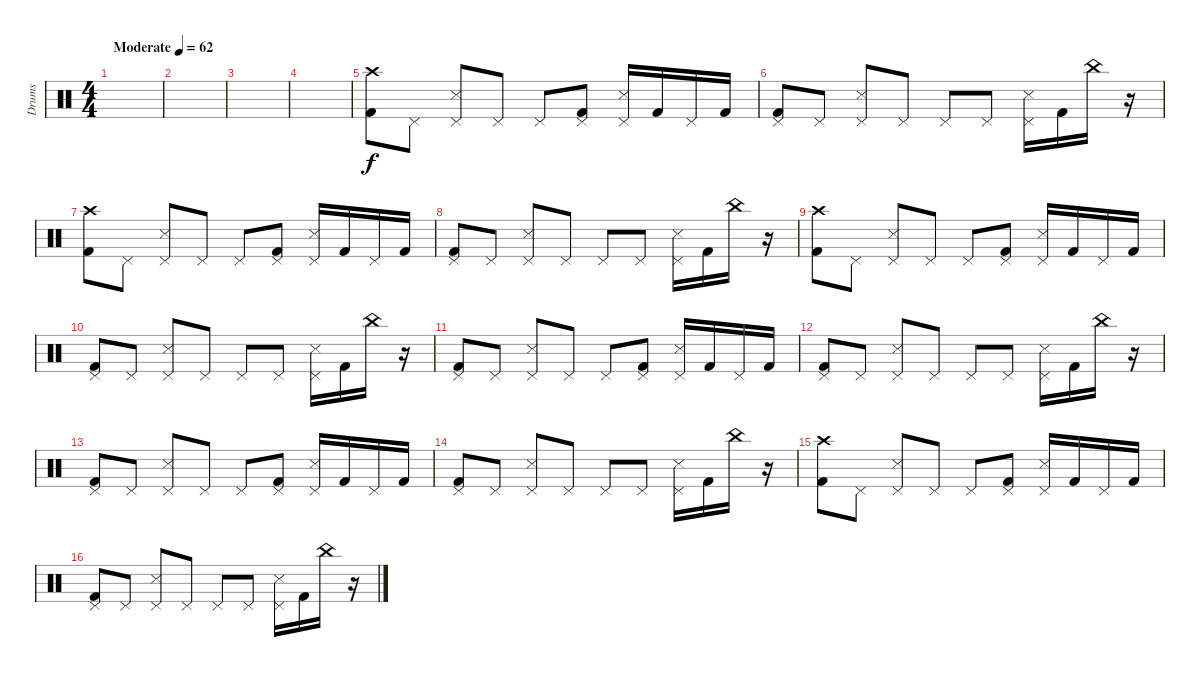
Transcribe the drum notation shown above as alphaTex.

\track ("Drums" "Drums") {instrument percussion}
\staff {score}
\articulation defaults
\ts (4 4)
\tempo (62 "Moderate")
\clef neutral
\ks c
|
|
|
|
("Crash high (hit)" "Kick (hit) 2").8 "Pedal Hi-Hat (hit)".8 ("Pedal Hi-Hat (hit)" "Snare (side stick) 3").8 "Pedal Hi-Hat (hit)".8 "Pedal Hi-Hat (hit)".8 ("Pedal Hi-Hat (hit)" "Kick (hit) 2").8 ("Pedal Hi-Hat (hit)" "Snare (side stick) 3").16 "Kick (hit) 2".16 "Pedal Hi-Hat (hit)".16 "Kick (hit) 2".16 |
("Pedal Hi-Hat (hit)" "Kick (hit) 2").8 "Pedal Hi-Hat (hit)".8 ("Pedal Hi-Hat (hit)" "Snare (side stick) 3").8 "Pedal Hi-Hat (hit)".8 "Pedal Hi-Hat (hit)".8 "Pedal Hi-Hat (hit)".8 ("Pedal Hi-Hat (hit)" "Snare (side stick) 3").16 "Kick (hit) 2".16 "China (hit)".16 r.16 |
("Crash high (hit)" "Kick (hit) 2").8 "Pedal Hi-Hat (hit)".8 ("Pedal Hi-Hat (hit)" "Snare (side stick) 3").8 "Pedal Hi-Hat (hit)".8 "Pedal Hi-Hat (hit)".8 ("Pedal Hi-Hat (hit)" "Kick (hit) 2").8 ("Pedal Hi-Hat (hit)" "Snare (side stick) 3").16 "Kick (hit) 2".16 "Pedal Hi-Hat (hit)".16 "Kick (hit) 2".16 |
("Pedal Hi-Hat (hit)" "Kick (hit) 2").8 "Pedal Hi-Hat (hit)".8 ("Pedal Hi-Hat (hit)" "Snare (side stick) 3").8 "Pedal Hi-Hat (hit)".8 "Pedal Hi-Hat (hit)".8 "Pedal Hi-Hat (hit)".8 ("Pedal Hi-Hat (hit)" "Snare (side stick) 3").16 "Kick (hit) 2".16 "China (hit)".16 r.16 |
("Crash high (hit)" "Kick (hit) 2").8 "Pedal Hi-Hat (hit)".8 ("Pedal Hi-Hat (hit)" "Snare (side stick) 3").8 "Pedal Hi-Hat (hit)".8 "Pedal Hi-Hat (hit)".8 ("Pedal Hi-Hat (hit)" "Kick (hit) 2").8 ("Pedal Hi-Hat (hit)" "Snare (side stick) 3").16 "Kick (hit) 2".16 "Pedal Hi-Hat (hit)".16 "Kick (hit) 2".16 |
("Pedal Hi-Hat (hit)" "Kick (hit) 2").8 "Pedal Hi-Hat (hit)".8 ("Pedal Hi-Hat (hit)" "Snare (side stick) 3").8 "Pedal Hi-Hat (hit)".8 "Pedal Hi-Hat (hit)".8 "Pedal Hi-Hat (hit)".8 ("Pedal Hi-Hat (hit)" "Snare (side stick) 3").16 "Kick (hit) 2".16 "China (hit)".16 r.16 |
("Pedal Hi-Hat (hit)" "Kick (hit) 2").8 "Pedal Hi-Hat (hit)".8 ("Pedal Hi-Hat (hit)" "Snare (side stick) 3").8 "Pedal Hi-Hat (hit)".8 "Pedal Hi-Hat (hit)".8 ("Pedal Hi-Hat (hit)" "Kick (hit) 2").8 ("Pedal Hi-Hat (hit)" "Snare (side stick) 3").16 "Kick (hit) 2".16 "Pedal Hi-Hat (hit)".16 "Kick (hit) 2".16 |
("Pedal Hi-Hat (hit)" "Kick (hit) 2").8 "Pedal Hi-Hat (hit)".8 ("Pedal Hi-Hat (hit)" "Snare (side stick) 3").8 "Pedal Hi-Hat (hit)".8 "Pedal Hi-Hat (hit)".8 "Pedal Hi-Hat (hit)".8 ("Pedal Hi-Hat (hit)" "Snare (side stick) 3").16 "Kick (hit) 2".16 "China (hit)".16 r.16 |
("Pedal Hi-Hat (hit)" "Kick (hit) 2").8 "Pedal Hi-Hat (hit)".8 ("Pedal Hi-Hat (hit)" "Snare (side stick) 3").8 "Pedal Hi-Hat (hit)".8 "Pedal Hi-Hat (hit)".8 ("Pedal Hi-Hat (hit)" "Kick (hit) 2").8 ("Pedal Hi-Hat (hit)" "Snare (side stick) 3").16 "Kick (hit) 2".16 "Pedal Hi-Hat (hit)".16 "Kick (hit) 2".16 |
("Pedal Hi-Hat (hit)" "Kick (hit) 2").8 "Pedal Hi-Hat (hit)".8 ("Pedal Hi-Hat (hit)" "Snare (side stick) 3").8 "Pedal Hi-Hat (hit)".8 "Pedal Hi-Hat (hit)".8 "Pedal Hi-Hat (hit)".8 ("Pedal Hi-Hat (hit)" "Snare (side stick) 3").16 "Kick (hit) 2".16 "China (hit)".16 r.16 |
("Crash high (hit)" "Kick (hit) 2").8 "Pedal Hi-Hat (hit)".8 ("Pedal Hi-Hat (hit)" "Snare (side stick) 3").8 "Pedal Hi-Hat (hit)".8 "Pedal Hi-Hat (hit)".8 ("Pedal Hi-Hat (hit)" "Kick (hit) 2").8 ("Pedal Hi-Hat (hit)" "Snare (side stick) 3").16 "Kick (hit) 2".16 "Pedal Hi-Hat (hit)".16 "Kick (hit) 2".16 |
("Pedal Hi-Hat (hit)" "Kick (hit) 2").8 "Pedal Hi-Hat (hit)".8 ("Pedal Hi-Hat (hit)" "Snare (side stick) 3").8 "Pedal Hi-Hat (hit)".8 "Pedal Hi-Hat (hit)".8 "Pedal Hi-Hat (hit)".8 ("Pedal Hi-Hat (hit)" "Snare (side stick) 3").16 "Kick (hit) 2".16 "China (hit)".16 r.16
